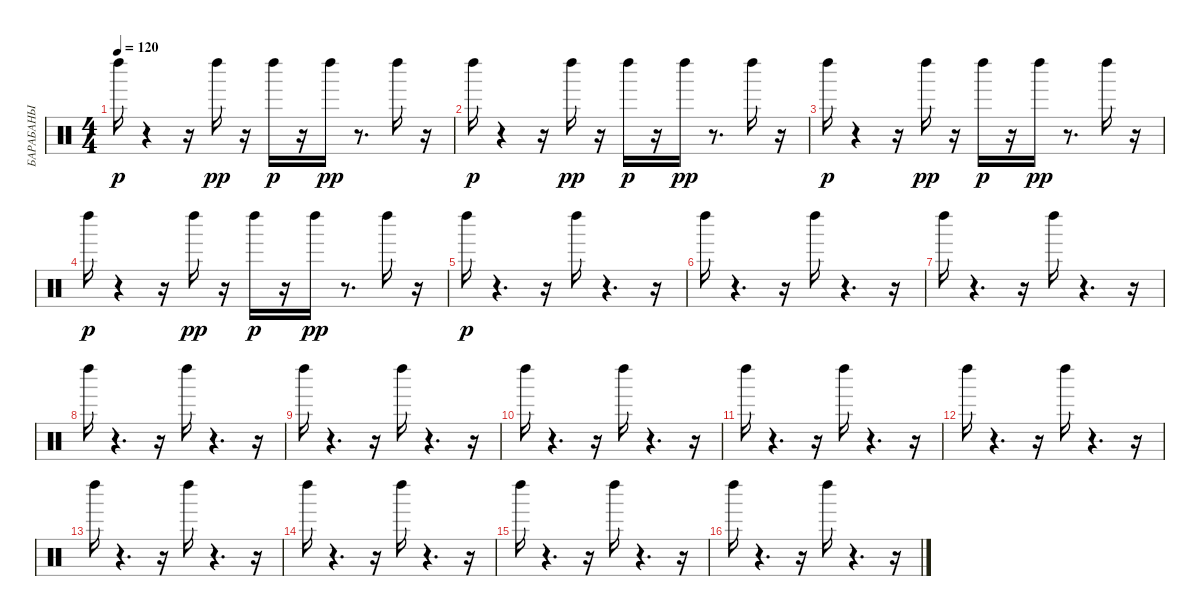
\track ("БАРАБАНЫ" "БАРАБАНЫ") {instrument percussion}
\staff {score}
\articulation defaults
\ts (4 4)
\tempo 120
\clef neutral
\ks c "Left Maraca (hit)".16{dy p}
r.4 r.16 "Left Maraca (hit)".16{dy pp} r.16 "Left Maraca (hit)".16{dy p} r.16 "Left Maraca (hit)".16{dy pp} r.8{d} "Left Maraca (hit)".16 r.16 |
"Left Maraca (hit)".16{dy p} r.4 r.16 "Left Maraca (hit)".16{dy pp} r.16 "Left Maraca (hit)".16{dy p} r.16 "Left Maraca (hit)".16{dy pp} r.8{d} "Left Maraca (hit)".16 r.16 |
"Left Maraca (hit)".16{dy p} r.4 r.16 "Left Maraca (hit)".16{dy pp} r.16 "Left Maraca (hit)".16{dy p} r.16 "Left Maraca (hit)".16{dy pp} r.8{d} "Left Maraca (hit)".16 r.16 |
"Left Maraca (hit)".16{dy p} r.4 r.16 "Left Maraca (hit)".16{dy pp} r.16 "Left Maraca (hit)".16{dy p} r.16 "Left Maraca (hit)".16{dy pp} r.8{d} "Left Maraca (hit)".16 r.16 |
"Left Maraca (hit)".16{dy p} r.4{d} r.16 "Left Maraca (hit)".16 r.4{d} r.16 |
"Left Maraca (hit)".16 r.4{d} r.16 "Left Maraca (hit)".16 r.4{d} r.16 |
"Left Maraca (hit)".16 r.4{d} r.16 "Left Maraca (hit)".16 r.4{d} r.16 |
"Left Maraca (hit)".16 r.4{d} r.16 "Left Maraca (hit)".16 r.4{d} r.16 |
"Left Maraca (hit)".16 r.4{d} r.16 "Left Maraca (hit)".16 r.4{d} r.16 |
"Left Maraca (hit)".16 r.4{d} r.16 "Left Maraca (hit)".16 r.4{d} r.16 |
"Left Maraca (hit)".16 r.4{d} r.16 "Left Maraca (hit)".16 r.4{d} r.16 |
"Left Maraca (hit)".16 r.4{d} r.16 "Left Maraca (hit)".16 r.4{d} r.16 |
"Left Maraca (hit)".16 r.4{d} r.16 "Left Maraca (hit)".16 r.4{d} r.16 |
"Left Maraca (hit)".16 r.4{d} r.16 "Left Maraca (hit)".16 r.4{d} r.16 |
"Left Maraca (hit)".16 r.4{d} r.16 "Left Maraca (hit)".16 r.4{d} r.16 |
"Left Maraca (hit)".16 r.4{d} r.16 "Left Maraca (hit)".16 r.4{d} r.16
